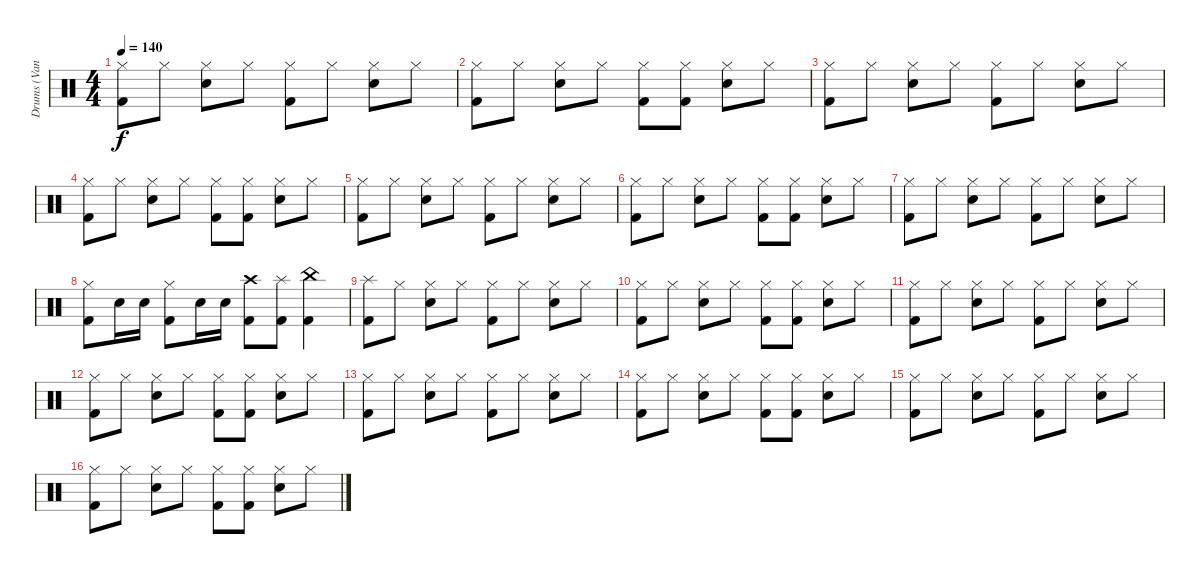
\track ("Drums (Vandel)" "Drums (Van") {instrument percussion}
\staff {score}
\articulation defaults
\ts (4 4)
\tempo 140
\clef neutral
\ks c
("Hi-Hat (closed)" "Kick (hit) 2").8{dy f} "Hi-Hat (closed)".8 ("Hi-Hat (closed)" "Snare (hit) 2").8 "Hi-Hat (closed)".8 ("Hi-Hat (closed)" "Kick (hit) 2").8 "Hi-Hat (closed)".8 ("Hi-Hat (closed)" "Snare (hit) 2").8 "Hi-Hat (closed)".8 |
("Hi-Hat (closed)" "Kick (hit) 2").8 "Hi-Hat (closed)".8 ("Hi-Hat (closed)" "Snare (hit) 2").8 "Hi-Hat (closed)".8 ("Hi-Hat (closed)" "Kick (hit) 2").8 ("Hi-Hat (closed)" "Kick (hit) 2").8 ("Hi-Hat (closed)" "Snare (hit) 2").8 "Hi-Hat (closed)".8 |
("Hi-Hat (closed)" "Kick (hit) 2").8 "Hi-Hat (closed)".8 ("Hi-Hat (closed)" "Snare (hit) 2").8 "Hi-Hat (closed)".8 ("Hi-Hat (closed)" "Kick (hit) 2").8 "Hi-Hat (closed)".8 ("Hi-Hat (closed)" "Snare (hit) 2").8 "Hi-Hat (closed)".8 |
("Hi-Hat (closed)" "Kick (hit) 2").8 "Hi-Hat (closed)".8 ("Hi-Hat (closed)" "Snare (hit) 2").8 "Hi-Hat (closed)".8 ("Hi-Hat (closed)" "Kick (hit) 2").8 ("Hi-Hat (closed)" "Kick (hit) 2").8 ("Hi-Hat (closed)" "Snare (hit) 2").8 "Hi-Hat (closed)".8 |
("Hi-Hat (closed)" "Kick (hit) 2").8 "Hi-Hat (closed)".8 ("Hi-Hat (closed)" "Snare (hit) 2").8 "Hi-Hat (closed)".8 ("Hi-Hat (closed)" "Kick (hit) 2").8 "Hi-Hat (closed)".8 ("Hi-Hat (closed)" "Snare (hit) 2").8 "Hi-Hat (closed)".8 |
("Hi-Hat (closed)" "Kick (hit) 2").8 "Hi-Hat (closed)".8 ("Hi-Hat (closed)" "Snare (hit) 2").8 "Hi-Hat (closed)".8 ("Hi-Hat (closed)" "Kick (hit) 2").8 ("Hi-Hat (closed)" "Kick (hit) 2").8 ("Hi-Hat (closed)" "Snare (hit) 2").8 "Hi-Hat (closed)".8 |
("Hi-Hat (closed)" "Kick (hit) 2").8 "Hi-Hat (closed)".8 ("Hi-Hat (closed)" "Snare (hit) 2").8 "Hi-Hat (closed)".8 ("Hi-Hat (closed)" "Kick (hit) 2").8 "Hi-Hat (closed)".8 ("Hi-Hat (closed)" "Snare (hit) 2").8 "Hi-Hat (closed)".8 |
("Hi-Hat (closed)" "Kick (hit) 2").8 "Snare (hit) 2".16 "Snare (hit) 2".16 ("Hi-Hat (closed)" "Kick (hit) 2").8 "Snare (hit) 2".16 "Snare (hit) 2".16 ("Crash high (hit)" "Kick (hit) 2").8 ("Splash (hit)" "Kick (hit) 2").8 ("China (hit)" "Kick (hit) 2").4 |
("Splash (hit)" "Kick (hit) 2").8 "Hi-Hat (closed)".8 ("Hi-Hat (closed)" "Snare (hit) 2").8 "Hi-Hat (closed)".8 ("Hi-Hat (closed)" "Kick (hit) 2").8 "Hi-Hat (closed)".8 ("Hi-Hat (closed)" "Snare (hit) 2").8 "Hi-Hat (closed)".8 |
("Hi-Hat (closed)" "Kick (hit) 2").8 "Hi-Hat (closed)".8 ("Hi-Hat (closed)" "Snare (hit) 2").8 "Hi-Hat (closed)".8 ("Hi-Hat (closed)" "Kick (hit) 2").8 ("Hi-Hat (closed)" "Kick (hit) 2").8 ("Hi-Hat (closed)" "Snare (hit) 2").8 "Hi-Hat (closed)".8 |
("Hi-Hat (closed)" "Kick (hit) 2").8 "Hi-Hat (closed)".8 ("Hi-Hat (closed)" "Snare (hit) 2").8 "Hi-Hat (closed)".8 ("Hi-Hat (closed)" "Kick (hit) 2").8 "Hi-Hat (closed)".8 ("Hi-Hat (closed)" "Snare (hit) 2").8 "Hi-Hat (closed)".8 |
("Hi-Hat (closed)" "Kick (hit) 2").8 "Hi-Hat (closed)".8 ("Hi-Hat (closed)" "Snare (hit) 2").8 "Hi-Hat (closed)".8 ("Hi-Hat (closed)" "Kick (hit) 2").8 ("Hi-Hat (closed)" "Kick (hit) 2").8 ("Hi-Hat (closed)" "Snare (hit) 2").8 "Hi-Hat (closed)".8 |
("Hi-Hat (closed)" "Kick (hit) 2").8 "Hi-Hat (closed)".8 ("Hi-Hat (closed)" "Snare (hit) 2").8 "Hi-Hat (closed)".8 ("Hi-Hat (closed)" "Kick (hit) 2").8 "Hi-Hat (closed)".8 ("Hi-Hat (closed)" "Snare (hit) 2").8 "Hi-Hat (closed)".8 |
("Hi-Hat (closed)" "Kick (hit) 2").8 "Hi-Hat (closed)".8 ("Hi-Hat (closed)" "Snare (hit) 2").8 "Hi-Hat (closed)".8 ("Hi-Hat (closed)" "Kick (hit) 2").8 ("Hi-Hat (closed)" "Kick (hit) 2").8 ("Hi-Hat (closed)" "Snare (hit) 2").8 "Hi-Hat (closed)".8 |
("Hi-Hat (closed)" "Kick (hit) 2").8 "Hi-Hat (closed)".8 ("Hi-Hat (closed)" "Snare (hit) 2").8 "Hi-Hat (closed)".8 ("Hi-Hat (closed)" "Kick (hit) 2").8 "Hi-Hat (closed)".8 ("Hi-Hat (closed)" "Snare (hit) 2").8 "Hi-Hat (closed)".8 |
("Hi-Hat (closed)" "Kick (hit) 2").8 "Hi-Hat (closed)".8 ("Hi-Hat (closed)" "Snare (hit) 2").8 "Hi-Hat (closed)".8 ("Hi-Hat (closed)" "Kick (hit) 2").8 ("Hi-Hat (closed)" "Kick (hit) 2").8 ("Hi-Hat (closed)" "Snare (hit) 2").8 "Hi-Hat (closed)".8
